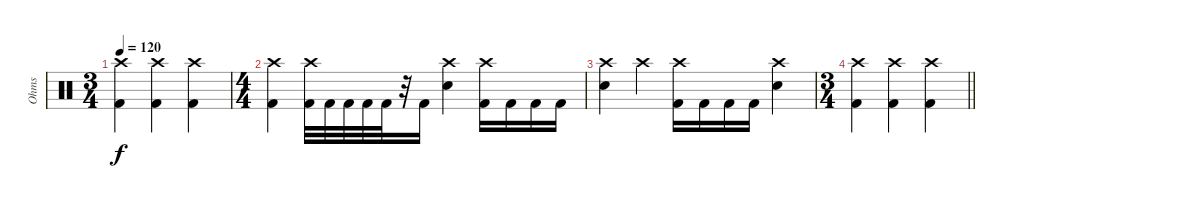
\track ("Ohms" "Ohms") {instrument percussion}
\staff {score}
\articulation defaults
\ts (3 4)
\tempo 120
\clef neutral
\ks c
("Crash high (hit)" "Kick (hit) 2").4{dy f} ("Crash high (hit)" "Kick (hit) 2").4 ("Crash high (hit)" "Kick (hit) 2").4 |
\ts (4 4)
("Crash high (hit)" "Kick (hit) 2").4 ("Crash high (hit)" "Kick (hit) 2").32 "Kick (hit) 2".32 "Kick (hit) 2".32 "Kick (hit) 2".32 "Kick (hit) 2".32 r.32 "Kick (hit) 2".16 ("Crash high (hit)" "Snare (hit) 2").4 ("Crash high (hit)" "Kick (hit) 2").16 "Kick (hit) 2".16 "Kick (hit) 2".16 "Kick (hit) 2".16 |
("Crash high (hit)" "Snare (hit) 2").4 "Crash high (hit)".4 ("Crash high (hit)" "Kick (hit) 2").16 "Kick (hit) 2".16 "Kick (hit) 2".16 "Kick (hit) 2".16 ("Crash high (hit)" "Snare (hit) 2").4 |
\ts (3 4)
\barLineRight lightlight
("Crash high (hit)" "Kick (hit) 2").4 ("Crash high (hit)" "Kick (hit) 2").4 ("Crash high (hit)" "Kick (hit) 2").4
